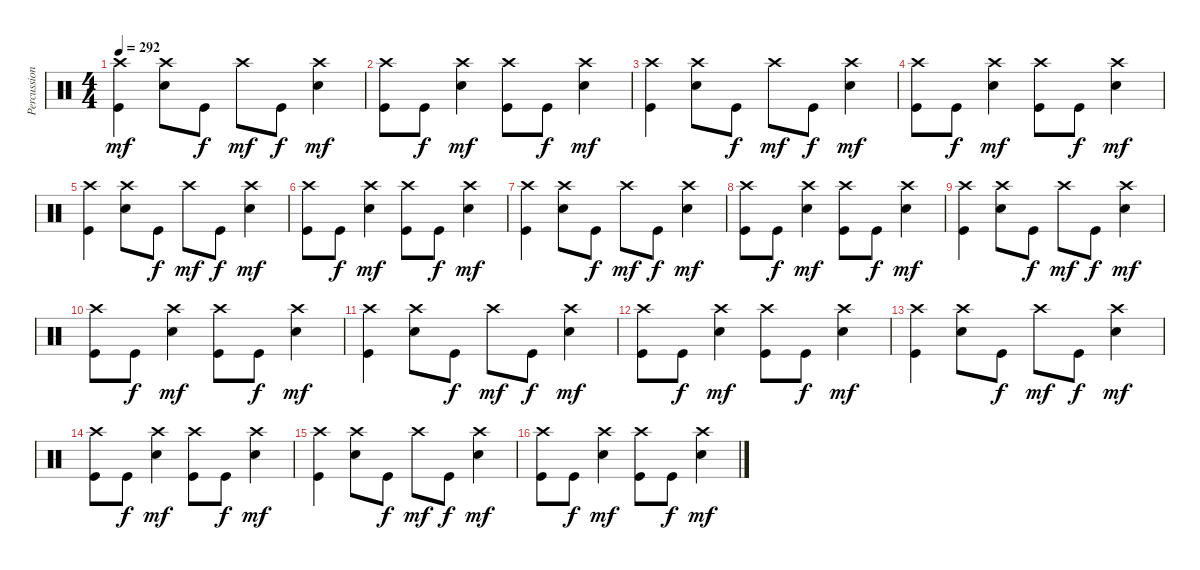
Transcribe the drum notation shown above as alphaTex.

\track ("Percussion" "Percussion") {instrument percussion}
\staff {score}
\articulation defaults
\ts (4 4)
\tempo 292
\clef neutral
\ks c
("Crash high (hit)" "Kick (hit)").4{dy mf} ("Crash high (hit)" "Electric Snare (hit)").8 "Kick (hit)".8{dy f} "Crash high (hit)".8{dy mf} "Kick (hit)".8{dy f} ("Crash high (hit)" "Electric Snare (hit)").4{dy mf} |
("Crash high (hit)" "Kick (hit)").8 "Kick (hit)".8{dy f} ("Crash high (hit)" "Electric Snare (hit)").4{dy mf} ("Crash high (hit)" "Kick (hit)").8 "Kick (hit)".8{dy f} ("Crash high (hit)" "Electric Snare (hit)").4{dy mf} |
("Crash high (hit)" "Kick (hit)").4 ("Crash high (hit)" "Electric Snare (hit)").8 "Kick (hit)".8{dy f} "Crash high (hit)".8{dy mf} "Kick (hit)".8{dy f} ("Crash high (hit)" "Electric Snare (hit)").4{dy mf} |
("Crash high (hit)" "Kick (hit)").8 "Kick (hit)".8{dy f} ("Crash high (hit)" "Electric Snare (hit)").4{dy mf} ("Crash high (hit)" "Kick (hit)").8 "Kick (hit)".8{dy f} ("Crash high (hit)" "Electric Snare (hit)").4{dy mf} |
("Crash high (hit)" "Kick (hit)").4 ("Crash high (hit)" "Electric Snare (hit)").8 "Kick (hit)".8{dy f} "Crash high (hit)".8{dy mf} "Kick (hit)".8{dy f} ("Crash high (hit)" "Electric Snare (hit)").4{dy mf} |
("Crash high (hit)" "Kick (hit)").8 "Kick (hit)".8{dy f} ("Crash high (hit)" "Electric Snare (hit)").4{dy mf} ("Crash high (hit)" "Kick (hit)").8 "Kick (hit)".8{dy f} ("Crash high (hit)" "Electric Snare (hit)").4{dy mf} |
("Crash high (hit)" "Kick (hit)").4 ("Crash high (hit)" "Electric Snare (hit)").8 "Kick (hit)".8{dy f} "Crash high (hit)".8{dy mf} "Kick (hit)".8{dy f} ("Crash high (hit)" "Electric Snare (hit)").4{dy mf} |
("Crash high (hit)" "Kick (hit)").8 "Kick (hit)".8{dy f} ("Crash high (hit)" "Electric Snare (hit)").4{dy mf} ("Crash high (hit)" "Kick (hit)").8 "Kick (hit)".8{dy f} ("Crash high (hit)" "Electric Snare (hit)").4{dy mf} |
("Crash high (hit)" "Kick (hit)").4 ("Crash high (hit)" "Electric Snare (hit)").8 "Kick (hit)".8{dy f} "Crash high (hit)".8{dy mf} "Kick (hit)".8{dy f} ("Crash high (hit)" "Electric Snare (hit)").4{dy mf} |
("Crash high (hit)" "Kick (hit)").8 "Kick (hit)".8{dy f} ("Crash high (hit)" "Electric Snare (hit)").4{dy mf} ("Crash high (hit)" "Kick (hit)").8 "Kick (hit)".8{dy f} ("Crash high (hit)" "Electric Snare (hit)").4{dy mf} |
("Crash high (hit)" "Kick (hit)").4 ("Crash high (hit)" "Electric Snare (hit)").8 "Kick (hit)".8{dy f} "Crash high (hit)".8{dy mf} "Kick (hit)".8{dy f} ("Crash high (hit)" "Electric Snare (hit)").4{dy mf} |
("Crash high (hit)" "Kick (hit)").8 "Kick (hit)".8{dy f} ("Crash high (hit)" "Electric Snare (hit)").4{dy mf} ("Crash high (hit)" "Kick (hit)").8 "Kick (hit)".8{dy f} ("Crash high (hit)" "Electric Snare (hit)").4{dy mf} |
("Crash high (hit)" "Kick (hit)").4 ("Crash high (hit)" "Electric Snare (hit)").8 "Kick (hit)".8{dy f} "Crash high (hit)".8{dy mf} "Kick (hit)".8{dy f} ("Crash high (hit)" "Electric Snare (hit)").4{dy mf} |
("Crash high (hit)" "Kick (hit)").8 "Kick (hit)".8{dy f} ("Crash high (hit)" "Electric Snare (hit)").4{dy mf} ("Crash high (hit)" "Kick (hit)").8 "Kick (hit)".8{dy f} ("Crash high (hit)" "Electric Snare (hit)").4{dy mf} |
("Crash high (hit)" "Kick (hit)").4 ("Crash high (hit)" "Electric Snare (hit)").8 "Kick (hit)".8{dy f} "Crash high (hit)".8{dy mf} "Kick (hit)".8{dy f} ("Crash high (hit)" "Electric Snare (hit)").4{dy mf} |
("Crash high (hit)" "Kick (hit)").8 "Kick (hit)".8{dy f} ("Crash high (hit)" "Electric Snare (hit)").4{dy mf} ("Crash high (hit)" "Kick (hit)").8 "Kick (hit)".8{dy f} ("Crash high (hit)" "Electric Snare (hit)").4{dy mf}
